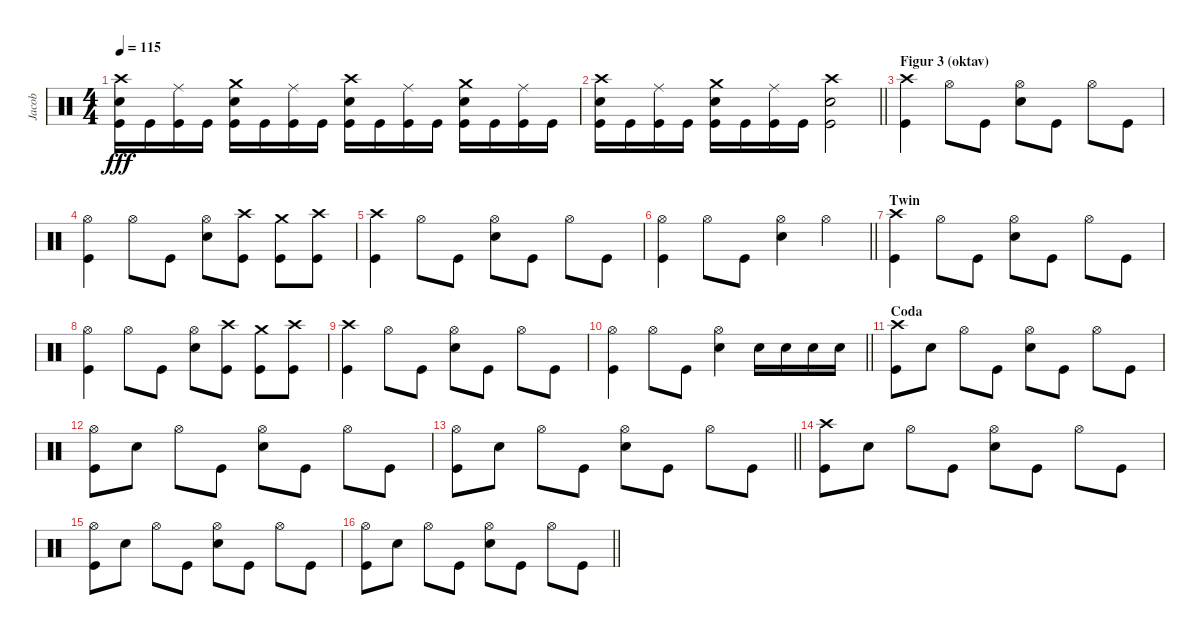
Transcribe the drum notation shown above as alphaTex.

\track ("Jacob" "Jacob") {instrument percussion}
\staff {score}
\articulation defaults
\ts (4 4)
\tempo 115
\clef neutral
\ks c
("Kick (hit)" "Electric Snare (hit)" "Crash high (hit)").16{dy fff} "Kick (hit)".16 ("Kick (hit)" "Ride (middle)").16 "Kick (hit)".16 ("Kick (hit)" "Electric Snare (hit)" "Crash medium (hit)").16 "Kick (hit)".16 ("Kick (hit)" "Ride (middle)").16 "Kick (hit)".16 ("Kick (hit)" "Electric Snare (hit)" "Crash high (hit)").16 "Kick (hit)".16 ("Kick (hit)" "Ride (middle)").16 "Kick (hit)".16 ("Kick (hit)" "Electric Snare (hit)" "Crash medium (hit)").16 "Kick (hit)".16 ("Kick (hit)" "Ride (middle)").16 "Kick (hit)".16 |
\barLineRight lightlight
("Kick (hit)" "Electric Snare (hit)" "Crash high (hit)").16 "Kick (hit)".16 ("Kick (hit)" "Ride (middle)").16 "Kick (hit)".16 ("Kick (hit)" "Electric Snare (hit)" "Crash medium (hit)").16 "Kick (hit)".16 ("Kick (hit)" "Ride (middle)").16 "Kick (hit)".16 ("Kick (hit)" "Electric Snare (hit)" "Crash high (hit)").2 |
\section ("" "Figur 3 (oktav)")
("Kick (hit)" "Crash high (hit)").4 "Hi-Hat (open)".8 "Kick (hit)".8 ("Electric Snare (hit)" "Hi-Hat (open)").8 "Kick (hit)".8 "Hi-Hat (open)".8 "Kick (hit)".8 |
("Kick (hit)" "Hi-Hat (open)").4 "Hi-Hat (open)".8 "Kick (hit)".8 ("Electric Snare (hit)" "Hi-Hat (open)").8 ("Kick (hit)" "Crash high (hit)").8 ("Kick (hit)" "Crash medium (hit)").8 ("Kick (hit)" "Crash high (hit)").8 |
("Kick (hit)" "Crash high (hit)").4 "Hi-Hat (open)".8 "Kick (hit)".8 ("Electric Snare (hit)" "Hi-Hat (open)").8 "Kick (hit)".8 "Hi-Hat (open)".8 "Kick (hit)".8 |
\barLineRight lightlight
("Kick (hit)" "Hi-Hat (open)").4 "Hi-Hat (open)".8 "Kick (hit)".8 ("Electric Snare (hit)" "Hi-Hat (open)").4 "Hi-Hat (open)".4 |
\section ("" "Twin")
("Kick (hit)" "Crash high (hit)").4 "Hi-Hat (open)".8 "Kick (hit)".8 ("Electric Snare (hit)" "Hi-Hat (open)").8 "Kick (hit)".8 "Hi-Hat (open)".8 "Kick (hit)".8 |
("Kick (hit)" "Hi-Hat (open)").4 "Hi-Hat (open)".8 "Kick (hit)".8 ("Electric Snare (hit)" "Hi-Hat (open)").8 ("Kick (hit)" "Crash high (hit)").8 ("Kick (hit)" "Crash medium (hit)").8 ("Kick (hit)" "Crash high (hit)").8 |
("Kick (hit)" "Crash high (hit)").4 "Hi-Hat (open)".8 "Kick (hit)".8 ("Electric Snare (hit)" "Hi-Hat (open)").8 "Kick (hit)".8 "Hi-Hat (open)".8 "Kick (hit)".8 |
\barLineRight lightlight
("Kick (hit)" "Hi-Hat (open)").4 "Hi-Hat (open)".8 "Kick (hit)".8 ("Electric Snare (hit)" "Hi-Hat (open)").4 "Electric Snare (hit)".16 "Electric Snare (hit)".16 "Electric Snare (hit)".16 "Electric Snare (hit)".16 |
\section ("" "Coda")
("Kick (hit)" "Crash high (hit)").8 "Electric Snare (hit)".8 "Hi-Hat (open)".8 "Kick (hit)".8 ("Electric Snare (hit)" "Hi-Hat (open)").8 "Kick (hit)".8 "Hi-Hat (open)".8 "Kick (hit)".8 |
("Kick (hit)" "Hi-Hat (open)").8 "Electric Snare (hit)".8 "Hi-Hat (open)".8 "Kick (hit)".8 ("Electric Snare (hit)" "Hi-Hat (open)").8 "Kick (hit)".8 "Hi-Hat (open)".8 "Kick (hit)".8 |
\barLineRight lightlight
("Kick (hit)" "Hi-Hat (open)").8 "Electric Snare (hit)".8 "Hi-Hat (open)".8 "Kick (hit)".8 ("Electric Snare (hit)" "Hi-Hat (open)").8 "Kick (hit)".8 "Hi-Hat (open)".8 "Kick (hit)".8 |
("Kick (hit)" "Crash high (hit)").8 "Electric Snare (hit)".8 "Hi-Hat (open)".8 "Kick (hit)".8 ("Electric Snare (hit)" "Hi-Hat (open)").8 "Kick (hit)".8 "Hi-Hat (open)".8 "Kick (hit)".8 |
("Kick (hit)" "Hi-Hat (open)").8 "Electric Snare (hit)".8 "Hi-Hat (open)".8 "Kick (hit)".8 ("Electric Snare (hit)" "Hi-Hat (open)").8 "Kick (hit)".8 "Hi-Hat (open)".8 "Kick (hit)".8 |
\barLineRight lightlight
("Kick (hit)" "Hi-Hat (open)").8 "Electric Snare (hit)".8 "Hi-Hat (open)".8 "Kick (hit)".8 ("Electric Snare (hit)" "Hi-Hat (open)").8 "Kick (hit)".8 "Hi-Hat (open)".8 "Kick (hit)".8
